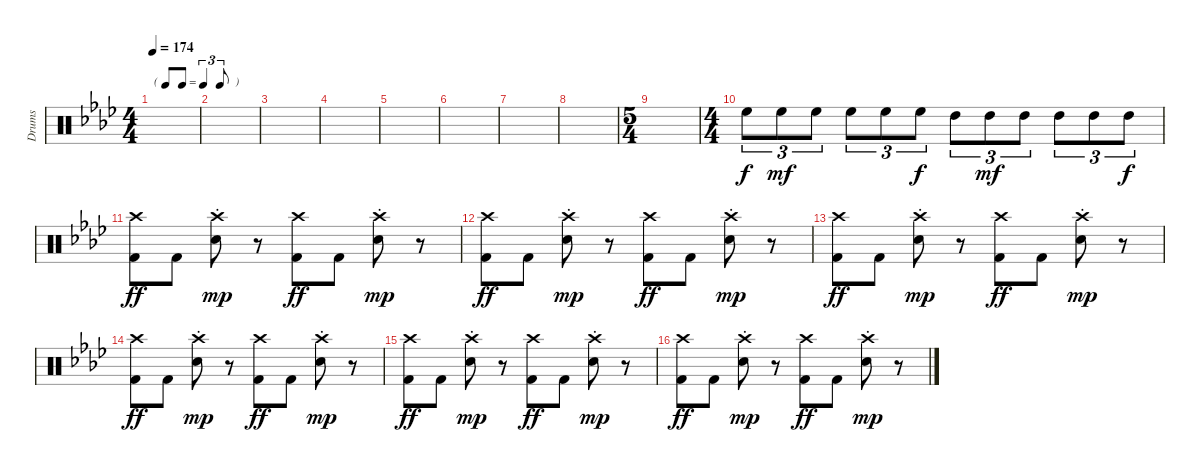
\track ("Drums" "Drums") {instrument percussion}
\staff {score}
\articulation defaults
\ts (4 4)
\tf triplet8th
\tempo 174
\clef neutral
\ks ab
|
|
|
|
|
|
|
|
\ts (5 4)
|
\ts (4 4)
"High Floor Tom (hit)".8{tu (3 2)} "High Floor Tom (hit)".8{tu (3 2) dy mf} "High Floor Tom (hit)".8{tu (3 2)} "High Floor Tom (hit)".8{tu (3 2)} "High Floor Tom (hit)".8{tu (3 2)} "High Floor Tom (hit)".8{tu (3 2) dy f} "High Tom (hit)".8{tu (3 2)} "High Tom (hit)".8{tu (3 2) dy mf} "High Tom (hit)".8{tu (3 2)} "High Tom (hit)".8{tu (3 2)} "High Tom (hit)".8{tu (3 2)} "High Tom (hit)".8{tu (3 2) dy f} |
("Crash high (hit)" "Kick (hit) 2").8{dy ff} "Kick (hit) 2".8 ("Crash high (hit)" "Snare (hit) 2"{st}).8{dy mp} r.8 ("Crash high (hit)" "Kick (hit) 2").8{dy ff} "Kick (hit) 2".8 ("Crash high (hit)" "Snare (hit) 2"{st}).8{dy mp} r.8 |
("Crash high (hit)" "Kick (hit) 2").8{dy ff} "Kick (hit) 2".8 ("Crash high (hit)" "Snare (hit) 2"{st}).8{dy mp} r.8 ("Crash high (hit)" "Kick (hit) 2").8{dy ff} "Kick (hit) 2".8 ("Crash high (hit)" "Snare (hit) 2"{st}).8{dy mp} r.8 |
("Crash high (hit)" "Kick (hit) 2").8{dy ff} "Kick (hit) 2".8 ("Crash high (hit)" "Snare (hit) 2"{st}).8{dy mp} r.8 ("Crash high (hit)" "Kick (hit) 2").8{dy ff} "Kick (hit) 2".8 ("Crash high (hit)" "Snare (hit) 2"{st}).8{dy mp} r.8 |
("Crash high (hit)" "Kick (hit) 2").8{dy ff} "Kick (hit) 2".8 ("Crash high (hit)" "Snare (hit) 2"{st}).8{dy mp} r.8 ("Crash high (hit)" "Kick (hit) 2").8{dy ff} "Kick (hit) 2".8 ("Crash high (hit)" "Snare (hit) 2"{st}).8{dy mp} r.8 |
("Crash high (hit)" "Kick (hit) 2").8{dy ff} "Kick (hit) 2".8 ("Crash high (hit)" "Snare (hit) 2"{st}).8{dy mp} r.8 ("Crash high (hit)" "Kick (hit) 2").8{dy ff} "Kick (hit) 2".8 ("Crash high (hit)" "Snare (hit) 2"{st}).8{dy mp} r.8 |
("Crash high (hit)" "Kick (hit) 2").8{dy ff} "Kick (hit) 2".8 ("Crash high (hit)" "Snare (hit) 2"{st}).8{dy mp} r.8 ("Crash high (hit)" "Kick (hit) 2").8{dy ff} "Kick (hit) 2".8 ("Crash high (hit)" "Snare (hit) 2"{st}).8{dy mp} r.8
